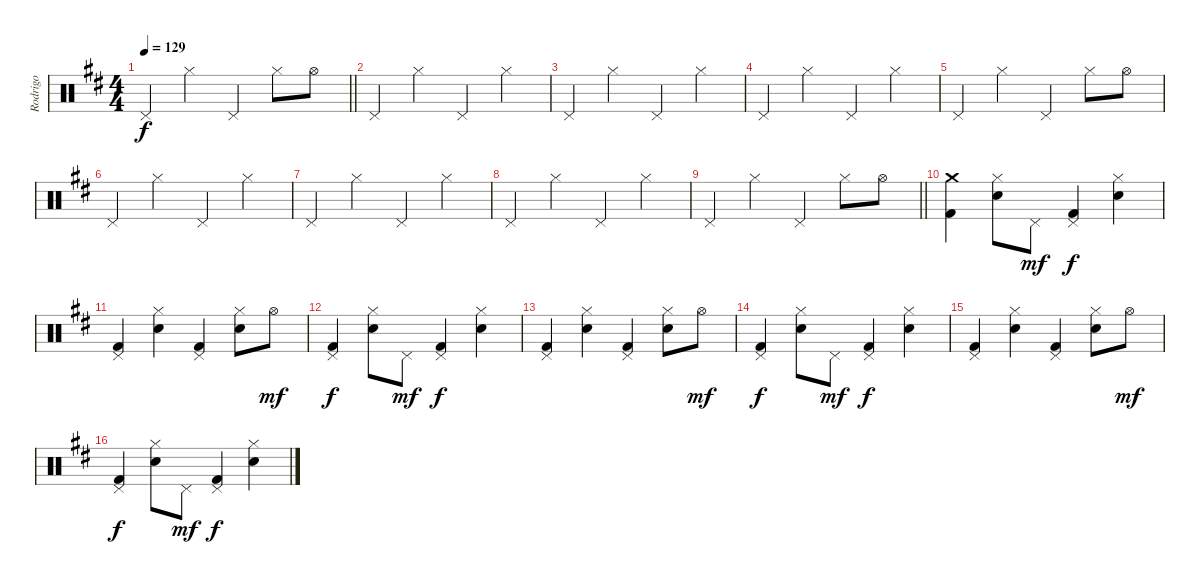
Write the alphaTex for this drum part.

\track ("Rodrigo " "Rodrigo ") {instrument percussion}
\staff {score}
\articulation defaults
\ts (4 4)
\tempo 129
\clef neutral
\barLineRight lightlight
\ks d "Pedal Hi-Hat (hit)".4{dy f} "Hi-Hat (closed)".4 "Pedal Hi-Hat (hit)".4 "Hi-Hat (closed)".8 "Hi-Hat (open)".8
|
"Pedal Hi-Hat (hit)".4 "Hi-Hat (closed)".4 "Pedal Hi-Hat (hit)".4 "Hi-Hat (closed)".4 |
"Pedal Hi-Hat (hit)".4 "Hi-Hat (closed)".4 "Pedal Hi-Hat (hit)".4 "Hi-Hat (closed)".4 |
"Pedal Hi-Hat (hit)".4 "Hi-Hat (closed)".4 "Pedal Hi-Hat (hit)".4 "Hi-Hat (closed)".4 |
"Pedal Hi-Hat (hit)".4 "Hi-Hat (closed)".4 "Pedal Hi-Hat (hit)".4 "Hi-Hat (closed)".8 "Hi-Hat (open)".8 |
"Pedal Hi-Hat (hit)".4 "Hi-Hat (closed)".4 "Pedal Hi-Hat (hit)".4 "Hi-Hat (closed)".4 |
"Pedal Hi-Hat (hit)".4 "Hi-Hat (closed)".4 "Pedal Hi-Hat (hit)".4 "Hi-Hat (closed)".4 |
"Pedal Hi-Hat (hit)".4 "Hi-Hat (closed)".4 "Pedal Hi-Hat (hit)".4 "Hi-Hat (closed)".4 |
\barLineRight lightlight "Pedal Hi-Hat (hit)".4 "Hi-Hat (closed)".4 "Pedal Hi-Hat (hit)".4 "Hi-Hat (closed)".8 "Hi-Hat (open)".8
|
("Crash medium (hit)" "Kick (hit) 2").4 ("Hi-Hat (closed)" "Electric Snare (hit)").8 "Pedal Hi-Hat (hit)".8{dy mf} ("Pedal Hi-Hat (hit)" "Kick (hit) 2").4{dy f} ("Hi-Hat (closed)" "Electric Snare (hit)").4 |
("Pedal Hi-Hat (hit)" "Kick (hit) 2").4 ("Hi-Hat (closed)" "Electric Snare (hit)").4 ("Pedal Hi-Hat (hit)" "Kick (hit) 2").4 ("Hi-Hat (closed)" "Electric Snare (hit)").8 "Hi-Hat (open)".8{dy mf} |
("Pedal Hi-Hat (hit)" "Kick (hit) 2").4{dy f} ("Hi-Hat (closed)" "Electric Snare (hit)").8 "Pedal Hi-Hat (hit)".8{dy mf} ("Pedal Hi-Hat (hit)" "Kick (hit) 2").4{dy f} ("Hi-Hat (closed)" "Electric Snare (hit)").4 |
("Pedal Hi-Hat (hit)" "Kick (hit) 2").4 ("Hi-Hat (closed)" "Electric Snare (hit)").4 ("Pedal Hi-Hat (hit)" "Kick (hit) 2").4 ("Hi-Hat (closed)" "Electric Snare (hit)").8 "Hi-Hat (open)".8{dy mf} |
("Pedal Hi-Hat (hit)" "Kick (hit) 2").4{dy f} ("Hi-Hat (closed)" "Electric Snare (hit)").8 "Pedal Hi-Hat (hit)".8{dy mf} ("Pedal Hi-Hat (hit)" "Kick (hit) 2").4{dy f} ("Hi-Hat (closed)" "Electric Snare (hit)").4 |
("Pedal Hi-Hat (hit)" "Kick (hit) 2").4 ("Hi-Hat (closed)" "Electric Snare (hit)").4 ("Pedal Hi-Hat (hit)" "Kick (hit) 2").4 ("Hi-Hat (closed)" "Electric Snare (hit)").8 "Hi-Hat (open)".8{dy mf} |
("Pedal Hi-Hat (hit)" "Kick (hit) 2").4{dy f} ("Hi-Hat (closed)" "Electric Snare (hit)").8 "Pedal Hi-Hat (hit)".8{dy mf} ("Pedal Hi-Hat (hit)" "Kick (hit) 2").4{dy f} ("Hi-Hat (closed)" "Electric Snare (hit)").4
